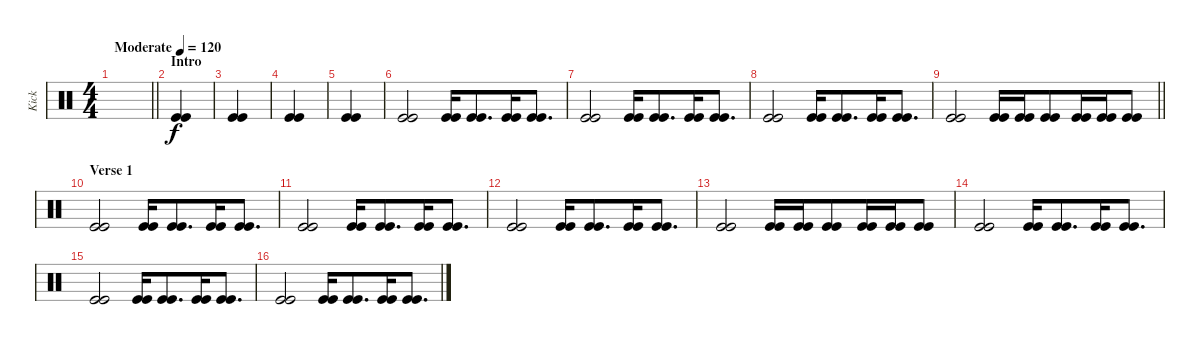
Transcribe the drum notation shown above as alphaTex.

\track ("Kick" "Kick") {instrument percussion bank 2}
\staff {score}
\articulation defaults
\ts (4 4)
\tempo (120 "Moderate")
\clef neutral
\barLineRight lightlight
\ks c
|
\section ("" "Intro")
("Kick (hit)" "Kick (hit)").4 |
("Kick (hit)" "Kick (hit)").4 |
("Kick (hit)" "Kick (hit)").4 |
("Kick (hit)" "Kick (hit)").4 |
("Kick (hit)" "Kick (hit)").2{beam merge} ("Kick (hit)" "Kick (hit)").16{beam merge} ("Kick (hit)" "Kick (hit)").8{d beam merge} ("Kick (hit)" "Kick (hit)").16 ("Kick (hit)" "Kick (hit)").8{d} |
("Kick (hit)" "Kick (hit)").2{beam merge} ("Kick (hit)" "Kick (hit)").16{beam merge} ("Kick (hit)" "Kick (hit)").8{d beam merge} ("Kick (hit)" "Kick (hit)").16 ("Kick (hit)" "Kick (hit)").8{d} |
("Kick (hit)" "Kick (hit)").2{beam merge} ("Kick (hit)" "Kick (hit)").16{beam merge} ("Kick (hit)" "Kick (hit)").8{d beam merge} ("Kick (hit)" "Kick (hit)").16 ("Kick (hit)" "Kick (hit)").8{d} |
\barLineRight lightlight
("Kick (hit)" "Kick (hit)").2{beam merge} ("Kick (hit)" "Kick (hit)").16{beam merge} ("Kick (hit)" "Kick (hit)").16{beam merge} ("Kick (hit)" "Kick (hit)").8{beam merge} ("Kick (hit)" "Kick (hit)").16 ("Kick (hit)" "Kick (hit)").16{beam merge} ("Kick (hit)" "Kick (hit)").8 |
\section ("" "Verse 1")
("Kick (hit)" "Kick (hit)").2{beam merge} ("Kick (hit)" "Kick (hit)").16{beam merge} ("Kick (hit)" "Kick (hit)").8{d beam merge} ("Kick (hit)" "Kick (hit)").16 ("Kick (hit)" "Kick (hit)").8{d} |
("Kick (hit)" "Kick (hit)").2{beam merge} ("Kick (hit)" "Kick (hit)").16{beam merge} ("Kick (hit)" "Kick (hit)").8{d beam merge} ("Kick (hit)" "Kick (hit)").16 ("Kick (hit)" "Kick (hit)").8{d} |
("Kick (hit)" "Kick (hit)").2{beam merge} ("Kick (hit)" "Kick (hit)").16{beam merge} ("Kick (hit)" "Kick (hit)").8{d beam merge} ("Kick (hit)" "Kick (hit)").16 ("Kick (hit)" "Kick (hit)").8{d} |
("Kick (hit)" "Kick (hit)").2{beam merge} ("Kick (hit)" "Kick (hit)").16{beam merge} ("Kick (hit)" "Kick (hit)").16{beam merge} ("Kick (hit)" "Kick (hit)").8{beam merge} ("Kick (hit)" "Kick (hit)").16 ("Kick (hit)" "Kick (hit)").16{beam merge} ("Kick (hit)" "Kick (hit)").8 |
("Kick (hit)" "Kick (hit)").2{beam merge} ("Kick (hit)" "Kick (hit)").16{beam merge} ("Kick (hit)" "Kick (hit)").8{d beam merge} ("Kick (hit)" "Kick (hit)").16 ("Kick (hit)" "Kick (hit)").8{d} |
("Kick (hit)" "Kick (hit)").2{beam merge} ("Kick (hit)" "Kick (hit)").16{beam merge} ("Kick (hit)" "Kick (hit)").8{d beam merge} ("Kick (hit)" "Kick (hit)").16 ("Kick (hit)" "Kick (hit)").8{d} |
("Kick (hit)" "Kick (hit)").2{beam merge} ("Kick (hit)" "Kick (hit)").16{beam merge} ("Kick (hit)" "Kick (hit)").8{d beam merge} ("Kick (hit)" "Kick (hit)").16 ("Kick (hit)" "Kick (hit)").8{d}
